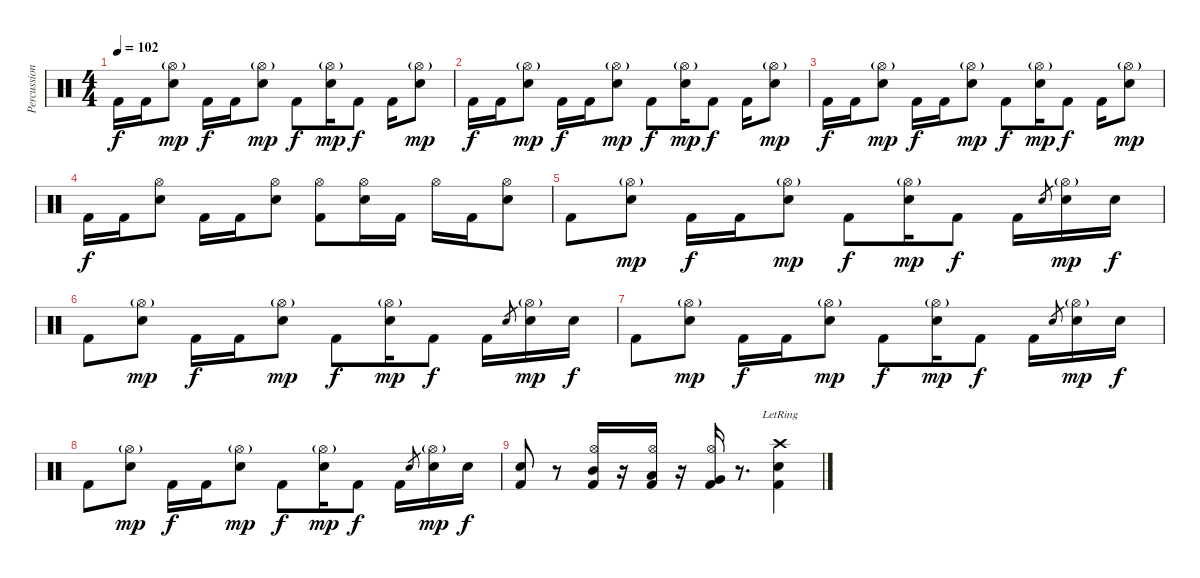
\track ("Percussion" "Percussion") {instrument percussion}
\staff {score}
\articulation defaults
\ts (4 4)
\tempo 102
\clef neutral
\ks c "Kick (hit) 2".16{dy f} "Kick (hit) 2".16
("Hi-Hat (open)"{g} "Snare (hit) 2").8{dy mp} "Kick (hit) 2".16{dy f} "Kick (hit) 2".16 ("Hi-Hat (open)"{g} "Snare (hit) 2").8{dy mp} "Kick (hit) 2".8{dy f} ("Hi-Hat (open)"{g} "Snare (hit) 2").16{dy mp} "Kick (hit) 2".8{dy f} "Kick (hit) 2".16 ("Hi-Hat (open)"{g} "Snare (hit) 2").8{dy mp} |
"Kick (hit) 2".16{dy f} "Kick (hit) 2".16 ("Hi-Hat (open)"{g} "Snare (hit) 2").8{dy mp} "Kick (hit) 2".16{dy f} "Kick (hit) 2".16 ("Hi-Hat (open)"{g} "Snare (hit) 2").8{dy mp} "Kick (hit) 2".8{dy f} ("Hi-Hat (open)"{g} "Snare (hit) 2").16{dy mp} "Kick (hit) 2".8{dy f} "Kick (hit) 2".16 ("Hi-Hat (open)"{g} "Snare (hit) 2").8{dy mp} |
"Kick (hit) 2".16{dy f} "Kick (hit) 2".16 ("Hi-Hat (open)"{g} "Snare (hit) 2").8{dy mp} "Kick (hit) 2".16{dy f} "Kick (hit) 2".16 ("Hi-Hat (open)"{g} "Snare (hit) 2").8{dy mp} "Kick (hit) 2".8{dy f} ("Hi-Hat (open)"{g} "Snare (hit) 2").16{dy mp} "Kick (hit) 2".8{dy f} "Kick (hit) 2".16 ("Hi-Hat (open)"{g} "Snare (hit) 2").8{dy mp} |
"Kick (hit) 2".16{dy f} "Kick (hit) 2".16 ("Hi-Hat (open)" "Snare (hit) 2").8 "Kick (hit) 2".16 "Kick (hit) 2".16 ("Hi-Hat (open)" "Snare (hit) 2").8 ("Hi-Hat (open)" "Kick (hit) 2").8 ("Hi-Hat (open)" "Snare (hit) 2").16 "Kick (hit) 2".16 "Hi-Hat (open)".16 "Kick (hit) 2".16 ("Hi-Hat (open)" "Snare (hit) 2").8 |
"Kick (hit) 2".8 ("Hi-Hat (open)"{g} "Snare (hit) 2").8{dy mp} "Kick (hit) 2".16{dy f} "Kick (hit) 2".16 ("Hi-Hat (open)"{g} "Snare (hit) 2").8{dy mp} "Kick (hit) 2".8{dy f} ("Hi-Hat (open)"{g} "Snare (hit) 2").16{dy mp} "Kick (hit) 2".8{dy f} "Kick (hit) 2".16 "Snare (hit) 2".8{gr} ("Hi-Hat (open)"{g} "Snare (hit) 2").16{dy mp} "Snare (hit) 2".16{dy f} |
"Kick (hit) 2".8 ("Hi-Hat (open)"{g} "Snare (hit) 2").8{dy mp} "Kick (hit) 2".16{dy f} "Kick (hit) 2".16 ("Hi-Hat (open)"{g} "Snare (hit) 2").8{dy mp} "Kick (hit) 2".8{dy f} ("Hi-Hat (open)"{g} "Snare (hit) 2").16{dy mp} "Kick (hit) 2".8{dy f} "Kick (hit) 2".16 "Snare (hit) 2".8{gr} ("Hi-Hat (open)"{g} "Snare (hit) 2").16{dy mp} "Snare (hit) 2".16{dy f} |
"Kick (hit) 2".8 ("Hi-Hat (open)"{g} "Snare (hit) 2").8{dy mp} "Kick (hit) 2".16{dy f} "Kick (hit) 2".16 ("Hi-Hat (open)"{g} "Snare (hit) 2").8{dy mp} "Kick (hit) 2".8{dy f} ("Hi-Hat (open)"{g} "Snare (hit) 2").16{dy mp} "Kick (hit) 2".8{dy f} "Kick (hit) 2".16 "Snare (hit) 2".8{gr} ("Hi-Hat (open)"{g} "Snare (hit) 2").16{dy mp} "Snare (hit) 2".16{dy f} |
"Kick (hit) 2".8 ("Hi-Hat (open)"{g} "Snare (hit) 2").8{dy mp} "Kick (hit) 2".16{dy f} "Kick (hit) 2".16 ("Hi-Hat (open)"{g} "Snare (hit) 2").8{dy mp} "Kick (hit) 2".8{dy f} ("Hi-Hat (open)"{g} "Snare (hit) 2").16{dy mp} "Kick (hit) 2".8{dy f} "Kick (hit) 2".16 "Snare (hit) 2".8{gr} ("Hi-Hat (open)"{g} "Snare (hit) 2").16{dy mp} "Snare (hit) 2".16{dy f} |
("Snare (hit) 2" "Kick (hit) 2").8 r.8 ("Hi-Hat (open)" "Mid Tom (hit)" "Kick (hit) 2").16 r.16 ("Hi-Hat (open)" "Low Tom (hit)" "Kick (hit) 2").16 r.16 ("Hi-Hat (open)" "Very Low Tom (hit)" "Kick (hit) 2").16 r.8{d} ("Crash high (hit)"{lr} "Snare (hit) 2" "Kick (hit) 2").4
